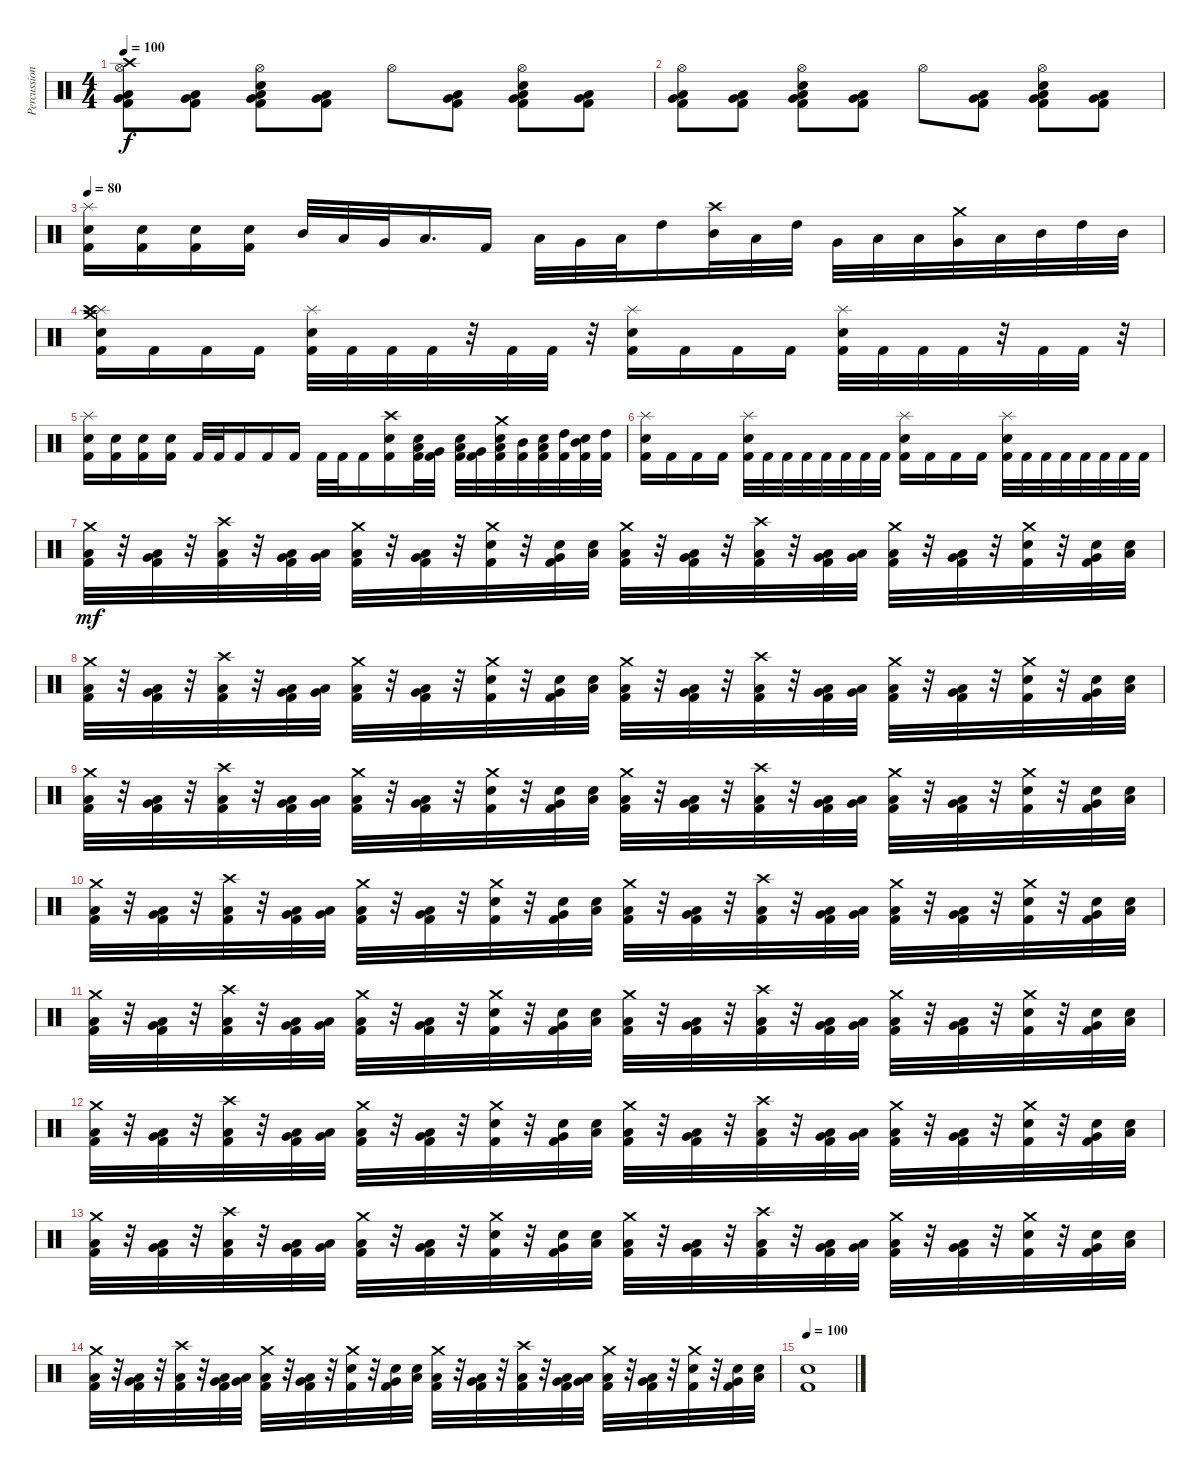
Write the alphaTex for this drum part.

\track ("Percussion" "Percussion") {instrument percussion}
\staff {score}
\articulation defaults
\ts (4 4)
\tempo 100
\clef neutral
\ks c
("Crash high (hit)" "Hi-Hat (open)" "Low Tom (hit)" "Very Low Tom (hit)" "Kick (hit) 2").8{dy f} ("Low Tom (hit)" "Very Low Tom (hit)" "Kick (hit) 2").8 ("Hi-Hat (open)" "Very Low Tom (hit)" "Low Floor Tom (hit)" "Electric Snare (hit)" "Kick (hit) 2").8 ("Low Tom (hit)" "Very Low Tom (hit)" "Kick (hit) 2").8 "Hi-Hat (open)".8 ("Low Tom (hit)" "Very Low Tom (hit)" "Kick (hit) 2").8 ("Hi-Hat (open)" "Very Low Tom (hit)" "Low Floor Tom (hit)" "Electric Snare (hit)" "Kick (hit) 2").8 ("Low Tom (hit)" "Very Low Tom (hit)" "Kick (hit) 2").8 |
("Hi-Hat (open)" "Low Tom (hit)" "Very Low Tom (hit)" "Kick (hit) 2").8 ("Low Tom (hit)" "Very Low Tom (hit)" "Kick (hit) 2").8 ("Hi-Hat (open)" "Very Low Tom (hit)" "Low Floor Tom (hit)" "Electric Snare (hit)" "Kick (hit) 2").8 ("Low Tom (hit)" "Very Low Tom (hit)" "Kick (hit) 2").8 "Hi-Hat (open)".8 ("Low Tom (hit)" "Very Low Tom (hit)" "Kick (hit) 2").8 ("Hi-Hat (open)" "Very Low Tom (hit)" "Low Floor Tom (hit)" "Electric Snare (hit)" "Kick (hit) 2").8 ("Low Tom (hit)" "Very Low Tom (hit)" "Kick (hit) 2").8 |
\tempo 80
("Splash (hit)" "Electric Snare (hit)" "Kick (hit) 2").16 ("Electric Snare (hit)" "Kick (hit) 2").16 ("Electric Snare (hit)" "Kick (hit) 2").16 ("Electric Snare (hit)" "Kick (hit) 2").16 "Mid Tom (hit)".32 "Low Tom (hit)".32 "Very Low Tom (hit)".32 "Low Floor Tom (hit)".16{d} "Kick (hit) 2".16 "Low Floor Tom (hit)".32 "Very Low Tom (hit)".32 "Low Tom (hit)".32 "High Tom (hit)".16 ("Crash high (hit)" "Mid Tom (hit)").32 "Low Tom (hit)".32 "High Tom (hit)".32 "Very Low Tom (hit)".32 "Low Tom (hit)".32 "Low Floor Tom (hit)".32 ("Crash medium (hit)" "Very Low Tom (hit)").32 "Low Tom (hit)".32 "Mid Tom (hit)".32 "High Tom (hit)".32 "Mid Tom (hit)".32 |
("Splash (hit)" "Crash high (hit)" "Crash medium (hit)" "Electric Snare (hit)" "Kick (hit) 2").16 "Kick (hit) 2".16 "Kick (hit) 2".16 "Kick (hit) 2".16 ("Splash (hit)" "Electric Snare (hit)" "Kick (hit) 2").32 "Kick (hit) 2".32 "Kick (hit) 2".32 "Kick (hit) 2".32 r.32 "Kick (hit) 2".32 "Kick (hit) 2".32 r.32 ("Splash (hit)" "Electric Snare (hit)" "Kick (hit) 2").16 "Kick (hit) 2".16 "Kick (hit) 2".16 "Kick (hit) 2".16 ("Splash (hit)" "Electric Snare (hit)" "Kick (hit) 2").32 "Kick (hit) 2".32 "Kick (hit) 2".32 "Kick (hit) 2".32 r.32 "Kick (hit) 2".32 "Kick (hit) 2".32 r.32 |
("Splash (hit)" "Electric Snare (hit)" "Kick (hit) 2").16 ("Electric Snare (hit)" "Kick (hit) 2").16 ("Electric Snare (hit)" "Kick (hit) 2").16 ("Electric Snare (hit)" "Kick (hit) 2").16 "Kick (hit) 2".32 "Kick (hit) 2".32 "Kick (hit) 2".16 "Kick (hit) 2".16 "Kick (hit) 2".16 "Kick (hit) 2".32 "Kick (hit) 2".32 "Kick (hit) 2".16 ("Crash high (hit)" "Electric Snare (hit)" "Kick (hit) 2").16 ("Low Tom (hit)" "Electric Snare (hit)" "Kick (hit) 2").32 ("Very Low Tom (hit)" "Kick (hit) 2").32 ("Low Floor Tom (hit)" "Electric Snare (hit)" "Kick (hit) 2").32 ("Very Low Tom (hit)" "Kick (hit) 2").32 ("Crash medium (hit)" "Low Tom (hit)" "Electric Snare (hit)" "Kick (hit) 2").32 ("Mid Tom (hit)" "Kick (hit) 2").32 ("Low Tom (hit)" "Electric Snare (hit)" "Kick (hit) 2").32 ("High Tom (hit)" "Kick (hit) 2").32 ("Mid Tom (hit)" "Electric Snare (hit)" "Kick (hit) 2").32 ("High Tom (hit)" "Kick (hit) 2").32 |
("Splash (hit)" "Electric Snare (hit)" "Kick (hit) 2").16 "Kick (hit) 2".16 "Kick (hit) 2".16 "Kick (hit) 2".16 ("Splash (hit)" "Electric Snare (hit)" "Kick (hit) 2").32 "Kick (hit) 2".32 "Kick (hit) 2".32 "Kick (hit) 2".32 "Kick (hit) 2".32 "Kick (hit) 2".32 "Kick (hit) 2".32 "Kick (hit) 2".32 ("Splash (hit)" "Electric Snare (hit)" "Kick (hit) 2").16 "Kick (hit) 2".16 "Kick (hit) 2".16 "Kick (hit) 2".16 ("Splash (hit)" "Electric Snare (hit)" "Kick (hit) 2").32 "Kick (hit) 2".32 "Kick (hit) 2".32 "Kick (hit) 2".32 "Kick (hit) 2".32 "Kick (hit) 2".32 "Kick (hit) 2".32 "Kick (hit) 2".32 |
("Crash medium (hit)" "Low Tom (hit)" "Kick (hit) 2").32{dy mf} r.32 ("Very Low Tom (hit)" "Low Floor Tom (hit)" "Kick (hit) 2").32 r.32 ("Crash high (hit)" "Low Tom (hit)" "Kick (hit) 2").32 r.32 ("Very Low Tom (hit)" "Low Floor Tom (hit)" "Kick (hit) 2").32 ("Low Tom (hit)" "Very Low Tom (hit)").32 ("Crash medium (hit)" "Low Tom (hit)" "Kick (hit) 2").32 r.32 ("Very Low Tom (hit)" "Low Floor Tom (hit)" "Kick (hit) 2").32 r.32 ("Crash medium (hit)" "Electric Snare (hit)" "Kick (hit) 2").32 r.32 ("Very Low Tom (hit)" "Electric Snare (hit)" "Kick (hit) 2").32 ("Low Tom (hit)" "Electric Snare (hit)").32 ("Crash medium (hit)" "Low Tom (hit)" "Kick (hit) 2").32 r.32 ("Very Low Tom (hit)" "Low Floor Tom (hit)" "Kick (hit) 2").32 r.32 ("Crash high (hit)" "Low Tom (hit)" "Kick (hit) 2").32 r.32 ("Very Low Tom (hit)" "Low Floor Tom (hit)" "Kick (hit) 2").32 ("Low Tom (hit)" "Very Low Tom (hit)").32 ("Crash medium (hit)" "Low Tom (hit)" "Kick (hit) 2").32 r.32 ("Very Low Tom (hit)" "Low Floor Tom (hit)" "Kick (hit) 2").32 r.32 ("Crash medium (hit)" "Electric Snare (hit)" "Kick (hit) 2").32 r.32 ("Very Low Tom (hit)" "Electric Snare (hit)" "Kick (hit) 2").32 ("Low Tom (hit)" "Electric Snare (hit)").32 |
("Crash medium (hit)" "Low Tom (hit)" "Kick (hit) 2").32 r.32 ("Very Low Tom (hit)" "Low Floor Tom (hit)" "Kick (hit) 2").32 r.32 ("Crash high (hit)" "Low Tom (hit)" "Kick (hit) 2").32 r.32 ("Very Low Tom (hit)" "Low Floor Tom (hit)" "Kick (hit) 2").32 ("Low Tom (hit)" "Very Low Tom (hit)").32 ("Crash medium (hit)" "Low Tom (hit)" "Kick (hit) 2").32 r.32 ("Very Low Tom (hit)" "Low Floor Tom (hit)" "Kick (hit) 2").32 r.32 ("Crash medium (hit)" "Electric Snare (hit)" "Kick (hit) 2").32 r.32 ("Very Low Tom (hit)" "Electric Snare (hit)" "Kick (hit) 2").32 ("Low Tom (hit)" "Electric Snare (hit)").32 ("Crash medium (hit)" "Low Tom (hit)" "Kick (hit) 2").32 r.32 ("Very Low Tom (hit)" "Low Floor Tom (hit)" "Kick (hit) 2").32 r.32 ("Crash high (hit)" "Low Tom (hit)" "Kick (hit) 2").32 r.32 ("Very Low Tom (hit)" "Low Floor Tom (hit)" "Kick (hit) 2").32 ("Low Tom (hit)" "Very Low Tom (hit)").32 ("Crash medium (hit)" "Low Tom (hit)" "Kick (hit) 2").32 r.32 ("Very Low Tom (hit)" "Low Floor Tom (hit)" "Kick (hit) 2").32 r.32 ("Crash medium (hit)" "Electric Snare (hit)" "Kick (hit) 2").32 r.32 ("Very Low Tom (hit)" "Electric Snare (hit)" "Kick (hit) 2").32 ("Low Tom (hit)" "Electric Snare (hit)").32 |
("Crash medium (hit)" "Low Tom (hit)" "Kick (hit) 2").32 r.32 ("Very Low Tom (hit)" "Low Floor Tom (hit)" "Kick (hit) 2").32 r.32 ("Crash high (hit)" "Low Tom (hit)" "Kick (hit) 2").32 r.32 ("Very Low Tom (hit)" "Low Floor Tom (hit)" "Kick (hit) 2").32 ("Low Tom (hit)" "Very Low Tom (hit)").32 ("Crash medium (hit)" "Low Tom (hit)" "Kick (hit) 2").32 r.32 ("Very Low Tom (hit)" "Low Floor Tom (hit)" "Kick (hit) 2").32 r.32 ("Crash medium (hit)" "Electric Snare (hit)" "Kick (hit) 2").32 r.32 ("Very Low Tom (hit)" "Electric Snare (hit)" "Kick (hit) 2").32 ("Low Tom (hit)" "Electric Snare (hit)").32 ("Crash medium (hit)" "Low Tom (hit)" "Kick (hit) 2").32 r.32 ("Very Low Tom (hit)" "Low Floor Tom (hit)" "Kick (hit) 2").32 r.32 ("Crash high (hit)" "Low Tom (hit)" "Kick (hit) 2").32 r.32 ("Very Low Tom (hit)" "Low Floor Tom (hit)" "Kick (hit) 2").32 ("Low Tom (hit)" "Very Low Tom (hit)").32 ("Crash medium (hit)" "Low Tom (hit)" "Kick (hit) 2").32 r.32 ("Very Low Tom (hit)" "Low Floor Tom (hit)" "Kick (hit) 2").32 r.32 ("Crash medium (hit)" "Electric Snare (hit)" "Kick (hit) 2").32 r.32 ("Very Low Tom (hit)" "Electric Snare (hit)" "Kick (hit) 2").32 ("Low Tom (hit)" "Electric Snare (hit)").32 |
("Crash medium (hit)" "Low Tom (hit)" "Kick (hit) 2").32 r.32 ("Very Low Tom (hit)" "Low Floor Tom (hit)" "Kick (hit) 2").32 r.32 ("Crash high (hit)" "Low Tom (hit)" "Kick (hit) 2").32 r.32 ("Very Low Tom (hit)" "Low Floor Tom (hit)" "Kick (hit) 2").32 ("Low Tom (hit)" "Very Low Tom (hit)").32 ("Crash medium (hit)" "Low Tom (hit)" "Kick (hit) 2").32 r.32 ("Very Low Tom (hit)" "Low Floor Tom (hit)" "Kick (hit) 2").32 r.32 ("Crash medium (hit)" "Electric Snare (hit)" "Kick (hit) 2").32 r.32 ("Very Low Tom (hit)" "Electric Snare (hit)" "Kick (hit) 2").32 ("Low Tom (hit)" "Electric Snare (hit)").32 ("Crash medium (hit)" "Low Tom (hit)" "Kick (hit) 2").32 r.32 ("Very Low Tom (hit)" "Low Floor Tom (hit)" "Kick (hit) 2").32 r.32 ("Crash high (hit)" "Low Tom (hit)" "Kick (hit) 2").32 r.32 ("Very Low Tom (hit)" "Low Floor Tom (hit)" "Kick (hit) 2").32 ("Low Tom (hit)" "Very Low Tom (hit)").32 ("Crash medium (hit)" "Low Tom (hit)" "Kick (hit) 2").32 r.32 ("Very Low Tom (hit)" "Low Floor Tom (hit)" "Kick (hit) 2").32 r.32 ("Crash medium (hit)" "Electric Snare (hit)" "Kick (hit) 2").32 r.32 ("Very Low Tom (hit)" "Electric Snare (hit)" "Kick (hit) 2").32 ("Low Tom (hit)" "Electric Snare (hit)").32 |
("Crash medium (hit)" "Low Tom (hit)" "Kick (hit) 2").32 r.32 ("Very Low Tom (hit)" "Low Floor Tom (hit)" "Kick (hit) 2").32 r.32 ("Crash high (hit)" "Low Tom (hit)" "Kick (hit) 2").32 r.32 ("Very Low Tom (hit)" "Low Floor Tom (hit)" "Kick (hit) 2").32 ("Low Tom (hit)" "Very Low Tom (hit)").32 ("Crash medium (hit)" "Low Tom (hit)" "Kick (hit) 2").32 r.32 ("Very Low Tom (hit)" "Low Floor Tom (hit)" "Kick (hit) 2").32 r.32 ("Crash medium (hit)" "Electric Snare (hit)" "Kick (hit) 2").32 r.32 ("Very Low Tom (hit)" "Electric Snare (hit)" "Kick (hit) 2").32 ("Low Tom (hit)" "Electric Snare (hit)").32 ("Crash medium (hit)" "Low Tom (hit)" "Kick (hit) 2").32 r.32 ("Very Low Tom (hit)" "Low Floor Tom (hit)" "Kick (hit) 2").32 r.32 ("Crash high (hit)" "Low Tom (hit)" "Kick (hit) 2").32 r.32 ("Very Low Tom (hit)" "Low Floor Tom (hit)" "Kick (hit) 2").32 ("Low Tom (hit)" "Very Low Tom (hit)").32 ("Crash medium (hit)" "Low Tom (hit)" "Kick (hit) 2").32 r.32 ("Very Low Tom (hit)" "Low Floor Tom (hit)" "Kick (hit) 2").32 r.32 ("Crash medium (hit)" "Electric Snare (hit)" "Kick (hit) 2").32 r.32 ("Very Low Tom (hit)" "Electric Snare (hit)" "Kick (hit) 2").32 ("Low Tom (hit)" "Electric Snare (hit)").32 |
("Crash medium (hit)" "Low Tom (hit)" "Kick (hit) 2").32 r.32 ("Very Low Tom (hit)" "Low Floor Tom (hit)" "Kick (hit) 2").32 r.32 ("Crash high (hit)" "Low Tom (hit)" "Kick (hit) 2").32 r.32 ("Very Low Tom (hit)" "Low Floor Tom (hit)" "Kick (hit) 2").32 ("Low Tom (hit)" "Very Low Tom (hit)").32 ("Crash medium (hit)" "Low Tom (hit)" "Kick (hit) 2").32 r.32 ("Very Low Tom (hit)" "Low Floor Tom (hit)" "Kick (hit) 2").32 r.32 ("Crash medium (hit)" "Electric Snare (hit)" "Kick (hit) 2").32 r.32 ("Very Low Tom (hit)" "Electric Snare (hit)" "Kick (hit) 2").32 ("Low Tom (hit)" "Electric Snare (hit)").32 ("Crash medium (hit)" "Low Tom (hit)" "Kick (hit) 2").32 r.32 ("Very Low Tom (hit)" "Low Floor Tom (hit)" "Kick (hit) 2").32 r.32 ("Crash high (hit)" "Low Tom (hit)" "Kick (hit) 2").32 r.32 ("Very Low Tom (hit)" "Low Floor Tom (hit)" "Kick (hit) 2").32 ("Low Tom (hit)" "Very Low Tom (hit)").32 ("Crash medium (hit)" "Low Tom (hit)" "Kick (hit) 2").32 r.32 ("Very Low Tom (hit)" "Low Floor Tom (hit)" "Kick (hit) 2").32 r.32 ("Crash medium (hit)" "Electric Snare (hit)" "Kick (hit) 2").32 r.32 ("Very Low Tom (hit)" "Electric Snare (hit)" "Kick (hit) 2").32 ("Low Tom (hit)" "Electric Snare (hit)").32 |
("Crash medium (hit)" "Low Tom (hit)" "Kick (hit) 2").32 r.32 ("Very Low Tom (hit)" "Low Floor Tom (hit)" "Kick (hit) 2").32 r.32 ("Crash high (hit)" "Low Tom (hit)" "Kick (hit) 2").32 r.32 ("Very Low Tom (hit)" "Low Floor Tom (hit)" "Kick (hit) 2").32 ("Low Tom (hit)" "Very Low Tom (hit)").32 ("Crash medium (hit)" "Low Tom (hit)" "Kick (hit) 2").32 r.32 ("Very Low Tom (hit)" "Low Floor Tom (hit)" "Kick (hit) 2").32 r.32 ("Crash medium (hit)" "Electric Snare (hit)" "Kick (hit) 2").32 r.32 ("Very Low Tom (hit)" "Electric Snare (hit)" "Kick (hit) 2").32 ("Low Tom (hit)" "Electric Snare (hit)").32 ("Crash medium (hit)" "Low Tom (hit)" "Kick (hit) 2").32 r.32 ("Very Low Tom (hit)" "Low Floor Tom (hit)" "Kick (hit) 2").32 r.32 ("Crash high (hit)" "Low Tom (hit)" "Kick (hit) 2").32 r.32 ("Very Low Tom (hit)" "Low Floor Tom (hit)" "Kick (hit) 2").32 ("Low Tom (hit)" "Very Low Tom (hit)").32 ("Crash medium (hit)" "Low Tom (hit)" "Kick (hit) 2").32 r.32 ("Very Low Tom (hit)" "Low Floor Tom (hit)" "Kick (hit) 2").32 r.32 ("Crash medium (hit)" "Electric Snare (hit)" "Kick (hit) 2").32 r.32 ("Very Low Tom (hit)" "Electric Snare (hit)" "Kick (hit) 2").32 ("Low Tom (hit)" "Electric Snare (hit)").32 |
("Crash medium (hit)" "Low Tom (hit)" "Kick (hit) 2").32 r.32 ("Very Low Tom (hit)" "Low Floor Tom (hit)" "Kick (hit) 2").32 r.32 ("Crash high (hit)" "Low Tom (hit)" "Kick (hit) 2").32 r.32 ("Very Low Tom (hit)" "Low Floor Tom (hit)" "Kick (hit) 2").32 ("Low Tom (hit)" "Very Low Tom (hit)").32 ("Crash medium (hit)" "Low Tom (hit)" "Kick (hit) 2").32 r.32 ("Very Low Tom (hit)" "Low Floor Tom (hit)" "Kick (hit) 2").32 r.32 ("Crash medium (hit)" "Electric Snare (hit)" "Kick (hit) 2").32 r.32 ("Very Low Tom (hit)" "Electric Snare (hit)" "Kick (hit) 2").32 ("Low Tom (hit)" "Electric Snare (hit)").32 ("Crash medium (hit)" "Low Tom (hit)" "Kick (hit) 2").32 r.32 ("Very Low Tom (hit)" "Low Floor Tom (hit)" "Kick (hit) 2").32 r.32 ("Crash high (hit)" "Low Tom (hit)" "Kick (hit) 2").32 r.32 ("Very Low Tom (hit)" "Low Floor Tom (hit)" "Kick (hit) 2").32 ("Low Tom (hit)" "Very Low Tom (hit)").32 ("Crash medium (hit)" "Low Tom (hit)" "Kick (hit) 2").32 r.32 ("Very Low Tom (hit)" "Low Floor Tom (hit)" "Kick (hit) 2").32 r.32 ("Crash medium (hit)" "Electric Snare (hit)" "Kick (hit) 2").32 r.32 ("Very Low Tom (hit)" "Electric Snare (hit)" "Kick (hit) 2").32 ("Low Tom (hit)" "Electric Snare (hit)").32 |
\tempo 100
("Electric Snare (hit)" "Kick (hit) 2").1
